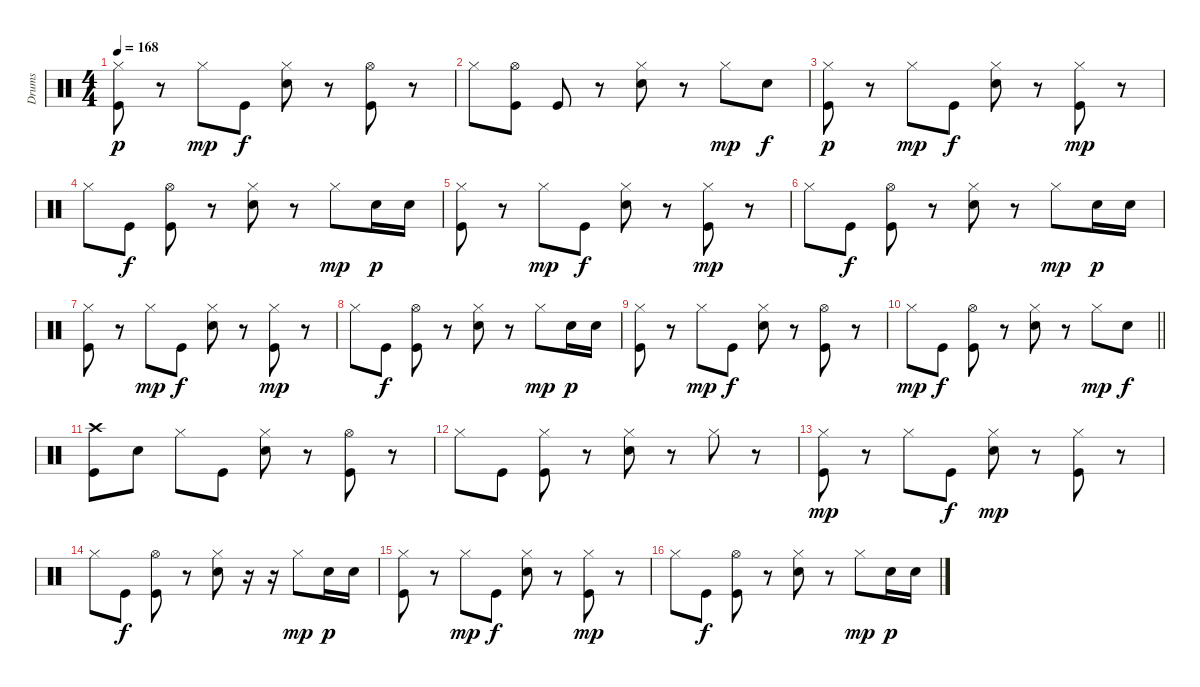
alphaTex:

\track ("Drums" "Drums") {instrument percussion}
\staff {score}
\articulation defaults
\ts (4 4)
\tempo 168
\clef neutral
\ks c
("Hi-Hat (closed)" "Kick (hit)").8{dy p} r.8 "Hi-Hat (closed)".8{dy mp} "Kick (hit)".8{dy f} ("Hi-Hat (closed)" "Electric Snare (hit)").8 r.8 ("Hi-Hat (open)" "Kick (hit)").8 r.8 |
"Hi-Hat (closed)".8 ("Hi-Hat (open)" "Kick (hit)").8 "Kick (hit)".8 r.8 ("Hi-Hat (closed)" "Electric Snare (hit)").8 r.8 "Hi-Hat (closed)".8{dy mp} "Electric Snare (hit)".8{dy f} |
("Hi-Hat (closed)" "Kick (hit)").8{dy p} r.8 "Hi-Hat (closed)".8{dy mp} "Kick (hit)".8{dy f} ("Hi-Hat (closed)" "Electric Snare (hit)").8 r.8 ("Hi-Hat (closed)" "Kick (hit)").8{dy mp} r.8 |
"Hi-Hat (closed)".8 "Kick (hit)".8{dy f} ("Hi-Hat (open)" "Kick (hit)").8 r.8 ("Hi-Hat (closed)" "Electric Snare (hit)").8 r.8 "Hi-Hat (closed)".8{dy mp} "Electric Snare (hit)".16{dy p} "Electric Snare (hit)".16 |
("Hi-Hat (closed)" "Kick (hit)").8 r.8 "Hi-Hat (closed)".8{dy mp} "Kick (hit)".8{dy f} ("Hi-Hat (closed)" "Electric Snare (hit)").8 r.8 ("Hi-Hat (closed)" "Kick (hit)").8{dy mp} r.8 |
"Hi-Hat (closed)".8 "Kick (hit)".8{dy f} ("Hi-Hat (open)" "Kick (hit)").8 r.8 ("Hi-Hat (closed)" "Electric Snare (hit)").8 r.8 "Hi-Hat (closed)".8{dy mp} "Electric Snare (hit)".16{dy p} "Electric Snare (hit)".16 |
("Hi-Hat (closed)" "Kick (hit)").8 r.8 "Hi-Hat (closed)".8{dy mp} "Kick (hit)".8{dy f} ("Hi-Hat (closed)" "Electric Snare (hit)").8 r.8 ("Hi-Hat (closed)" "Kick (hit)").8{dy mp} r.8 |
"Hi-Hat (closed)".8 "Kick (hit)".8{dy f} ("Hi-Hat (open)" "Kick (hit)").8 r.8 ("Hi-Hat (closed)" "Electric Snare (hit)").8 r.8 "Hi-Hat (closed)".8{dy mp} "Electric Snare (hit)".16{dy p} "Electric Snare (hit)".16 |
("Hi-Hat (closed)" "Kick (hit)").8 r.8 "Hi-Hat (closed)".8{dy mp} "Kick (hit)".8{dy f} ("Hi-Hat (closed)" "Electric Snare (hit)").8 r.8 ("Hi-Hat (open)" "Kick (hit)").8 r.8 |
\barLineRight lightlight "Hi-Hat (closed)".8{dy mp} "Kick (hit)".8{dy f}
("Hi-Hat (open)" "Kick (hit)").8 r.8 ("Hi-Hat (closed)" "Electric Snare (hit)").8 r.8 "Hi-Hat (closed)".8{dy mp} "Electric Snare (hit)".8{dy f} |
\section ("" "")
("Crash high (hit)" "Kick (hit)").8 "Electric Snare (hit)".8 "Hi-Hat (closed)".8 "Kick (hit)".8 ("Hi-Hat (closed)" "Electric Snare (hit)").8 r.8 ("Hi-Hat (open)" "Kick (hit)").8 r.8 |
"Hi-Hat (closed)".8 "Kick (hit)".8 ("Hi-Hat (closed)" "Kick (hit)").8 r.8 ("Hi-Hat (closed)" "Electric Snare (hit)").8 r.8 "Hi-Hat (closed)".8 r.8 |
("Hi-Hat (closed)" "Kick (hit)").8{dy mp} r.8 "Hi-Hat (closed)".8 "Kick (hit)".8{dy f} ("Hi-Hat (closed)" "Electric Snare (hit)").8{dy mp} r.8 ("Hi-Hat (closed)" "Kick (hit)").8 r.8 |
"Hi-Hat (closed)".8 "Kick (hit)".8{dy f} ("Hi-Hat (open)" "Kick (hit)").8 r.8 ("Hi-Hat (closed)" "Electric Snare (hit)").8 r.16 r.16 "Hi-Hat (closed)".8{dy mp} "Electric Snare (hit)".16{dy p} "Electric Snare (hit)".16 |
("Hi-Hat (closed)" "Kick (hit)").8 r.8 "Hi-Hat (closed)".8{dy mp} "Kick (hit)".8{dy f} ("Hi-Hat (closed)" "Electric Snare (hit)").8 r.8 ("Hi-Hat (closed)" "Kick (hit)").8{dy mp} r.8 |
"Hi-Hat (closed)".8 "Kick (hit)".8{dy f} ("Hi-Hat (open)" "Kick (hit)").8 r.8 ("Hi-Hat (closed)" "Electric Snare (hit)").8 r.8 "Hi-Hat (closed)".8{dy mp} "Electric Snare (hit)".16{dy p} "Electric Snare (hit)".16
